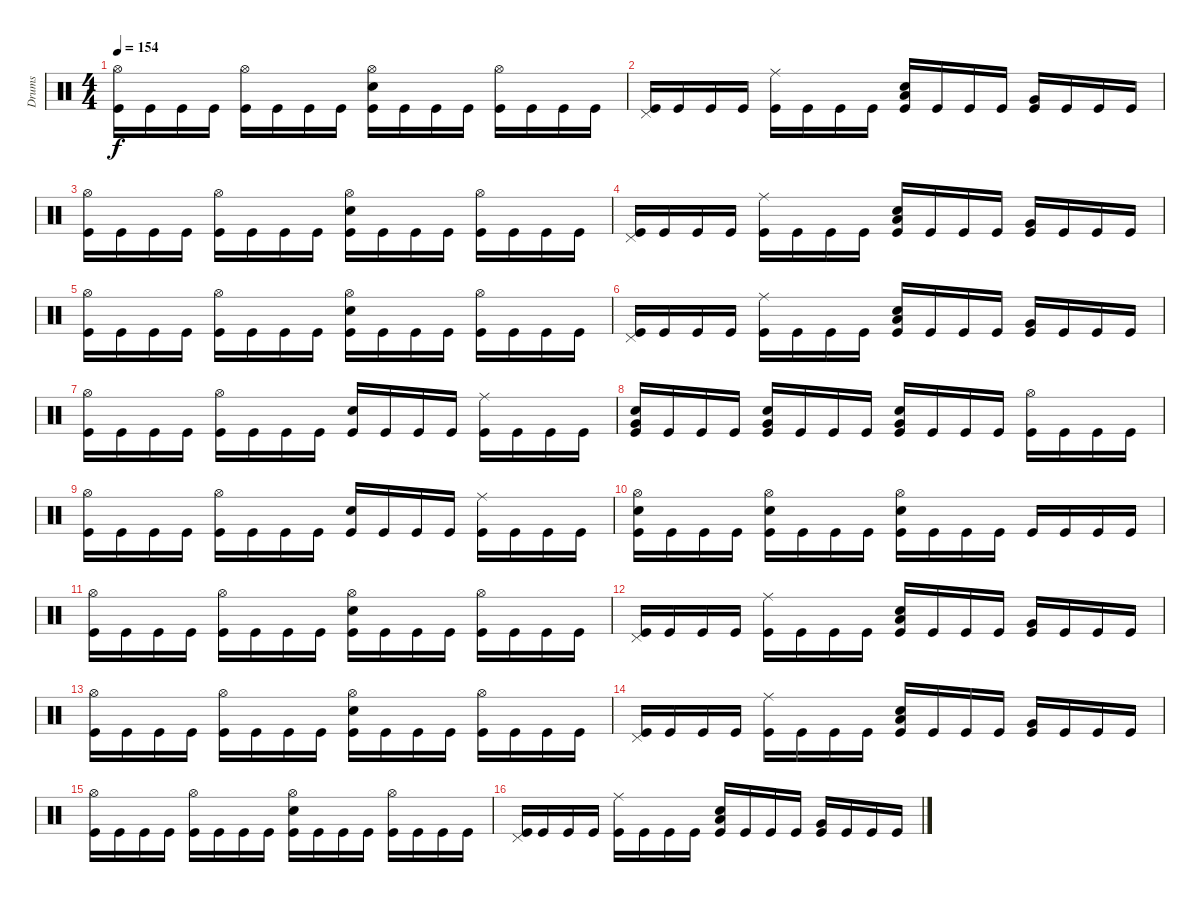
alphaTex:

\track ("Drums" "Drums") {instrument percussion}
\staff {score}
\articulation defaults
\ts (4 4)
\tempo 154
\clef neutral
\ks c
("Hi-Hat (open)" "Kick (hit)").16{dy f} "Kick (hit)".16 "Kick (hit)".16 "Kick (hit)".16 ("Hi-Hat (open)" "Kick (hit)").16 "Kick (hit)".16 "Kick (hit)".16 "Kick (hit)".16 ("Hi-Hat (open)" "Electric Snare (hit)" "Kick (hit)").16 "Kick (hit)".16 "Kick (hit)".16 "Kick (hit)".16 ("Hi-Hat (open)" "Kick (hit)").16 "Kick (hit)".16 "Kick (hit)".16 "Kick (hit)".16 |
("Pedal Hi-Hat (hit)" "Kick (hit)").16 "Kick (hit)".16 "Kick (hit)".16 "Kick (hit)".16 ("Ride (middle)" "Kick (hit)").16 "Kick (hit)".16 "Kick (hit)".16 "Kick (hit)".16 ("Electric Snare (hit)" "Low Floor Tom (hit)" "Kick (hit)").16 "Kick (hit)".16 "Kick (hit)".16 "Kick (hit)".16 ("Very Low Tom (hit)" "Kick (hit)").16 "Kick (hit)".16 "Kick (hit)".16 "Kick (hit)".16 |
("Hi-Hat (open)" "Kick (hit)").16 "Kick (hit)".16 "Kick (hit)".16 "Kick (hit)".16 ("Hi-Hat (open)" "Kick (hit)").16 "Kick (hit)".16 "Kick (hit)".16 "Kick (hit)".16 ("Hi-Hat (open)" "Electric Snare (hit)" "Kick (hit)").16 "Kick (hit)".16 "Kick (hit)".16 "Kick (hit)".16 ("Hi-Hat (open)" "Kick (hit)").16 "Kick (hit)".16 "Kick (hit)".16 "Kick (hit)".16 |
("Pedal Hi-Hat (hit)" "Kick (hit)").16 "Kick (hit)".16 "Kick (hit)".16 "Kick (hit)".16 ("Ride (middle)" "Kick (hit)").16 "Kick (hit)".16 "Kick (hit)".16 "Kick (hit)".16 ("Electric Snare (hit)" "Low Floor Tom (hit)" "Kick (hit)").16 "Kick (hit)".16 "Kick (hit)".16 "Kick (hit)".16 ("Very Low Tom (hit)" "Kick (hit)").16 "Kick (hit)".16 "Kick (hit)".16 "Kick (hit)".16 |
("Hi-Hat (open)" "Kick (hit)").16 "Kick (hit)".16 "Kick (hit)".16 "Kick (hit)".16 ("Hi-Hat (open)" "Kick (hit)").16 "Kick (hit)".16 "Kick (hit)".16 "Kick (hit)".16 ("Hi-Hat (open)" "Electric Snare (hit)" "Kick (hit)").16 "Kick (hit)".16 "Kick (hit)".16 "Kick (hit)".16 ("Hi-Hat (open)" "Kick (hit)").16 "Kick (hit)".16 "Kick (hit)".16 "Kick (hit)".16 |
("Pedal Hi-Hat (hit)" "Kick (hit)").16 "Kick (hit)".16 "Kick (hit)".16 "Kick (hit)".16 ("Ride (middle)" "Kick (hit)").16 "Kick (hit)".16 "Kick (hit)".16 "Kick (hit)".16 ("Electric Snare (hit)" "Low Floor Tom (hit)" "Kick (hit)").16 "Kick (hit)".16 "Kick (hit)".16 "Kick (hit)".16 ("Very Low Tom (hit)" "Kick (hit)").16 "Kick (hit)".16 "Kick (hit)".16 "Kick (hit)".16 |
("Hi-Hat (open)" "Kick (hit)").16 "Kick (hit)".16 "Kick (hit)".16 "Kick (hit)".16 ("Hi-Hat (open)" "Kick (hit)").16 "Kick (hit)".16 "Kick (hit)".16 "Kick (hit)".16 ("Electric Snare (hit)" "Kick (hit)").16 "Kick (hit)".16 "Kick (hit)".16 "Kick (hit)".16 ("Ride (middle)" "Kick (hit)").16 "Kick (hit)".16 "Kick (hit)".16 "Kick (hit)".16 |
("Electric Snare (hit)" "Very Low Tom (hit)" "Kick (hit)").16 "Kick (hit)".16 "Kick (hit)".16 "Kick (hit)".16 ("Electric Snare (hit)" "Very Low Tom (hit)" "Kick (hit)").16 "Kick (hit)".16 "Kick (hit)".16 "Kick (hit)".16 ("Electric Snare (hit)" "Very Low Tom (hit)" "Kick (hit)").16 "Kick (hit)".16 "Kick (hit)".16 "Kick (hit)".16 ("Hi-Hat (open)" "Kick (hit)").16 "Kick (hit)".16 "Kick (hit)".16 "Kick (hit)".16 |
("Hi-Hat (open)" "Kick (hit)").16 "Kick (hit)".16 "Kick (hit)".16 "Kick (hit)".16 ("Hi-Hat (open)" "Kick (hit)").16 "Kick (hit)".16 "Kick (hit)".16 "Kick (hit)".16 ("Electric Snare (hit)" "Kick (hit)").16 "Kick (hit)".16 "Kick (hit)".16 "Kick (hit)".16 ("Ride (middle)" "Kick (hit)").16 "Kick (hit)".16 "Kick (hit)".16 "Kick (hit)".16 |
("Hi-Hat (open)" "Electric Snare (hit)" "Kick (hit)").16 "Kick (hit)".16 "Kick (hit)".16 "Kick (hit)".16 ("Hi-Hat (open)" "Electric Snare (hit)" "Kick (hit)").16 "Kick (hit)".16 "Kick (hit)".16 "Kick (hit)".16 ("Hi-Hat (open)" "Electric Snare (hit)" "Kick (hit)").16 "Kick (hit)".16 "Kick (hit)".16 "Kick (hit)".16 "Kick (hit)".16 "Kick (hit)".16 "Kick (hit)".16 "Kick (hit)".16 |
("Hi-Hat (open)" "Kick (hit)").16 "Kick (hit)".16 "Kick (hit)".16 "Kick (hit)".16 ("Hi-Hat (open)" "Kick (hit)").16 "Kick (hit)".16 "Kick (hit)".16 "Kick (hit)".16 ("Hi-Hat (open)" "Electric Snare (hit)" "Kick (hit)").16 "Kick (hit)".16 "Kick (hit)".16 "Kick (hit)".16 ("Hi-Hat (open)" "Kick (hit)").16 "Kick (hit)".16 "Kick (hit)".16 "Kick (hit)".16 |
("Pedal Hi-Hat (hit)" "Kick (hit)").16 "Kick (hit)".16 "Kick (hit)".16 "Kick (hit)".16 ("Ride (middle)" "Kick (hit)").16 "Kick (hit)".16 "Kick (hit)".16 "Kick (hit)".16 ("Electric Snare (hit)" "Low Floor Tom (hit)" "Kick (hit)").16 "Kick (hit)".16 "Kick (hit)".16 "Kick (hit)".16 ("Very Low Tom (hit)" "Kick (hit)").16 "Kick (hit)".16 "Kick (hit)".16 "Kick (hit)".16 |
("Hi-Hat (open)" "Kick (hit)").16 "Kick (hit)".16 "Kick (hit)".16 "Kick (hit)".16 ("Hi-Hat (open)" "Kick (hit)").16 "Kick (hit)".16 "Kick (hit)".16 "Kick (hit)".16 ("Hi-Hat (open)" "Electric Snare (hit)" "Kick (hit)").16 "Kick (hit)".16 "Kick (hit)".16 "Kick (hit)".16 ("Hi-Hat (open)" "Kick (hit)").16 "Kick (hit)".16 "Kick (hit)".16 "Kick (hit)".16 |
("Pedal Hi-Hat (hit)" "Kick (hit)").16 "Kick (hit)".16 "Kick (hit)".16 "Kick (hit)".16 ("Ride (middle)" "Kick (hit)").16 "Kick (hit)".16 "Kick (hit)".16 "Kick (hit)".16 ("Electric Snare (hit)" "Low Floor Tom (hit)" "Kick (hit)").16 "Kick (hit)".16 "Kick (hit)".16 "Kick (hit)".16 ("Very Low Tom (hit)" "Kick (hit)").16 "Kick (hit)".16 "Kick (hit)".16 "Kick (hit)".16 |
("Hi-Hat (open)" "Kick (hit)").16 "Kick (hit)".16 "Kick (hit)".16 "Kick (hit)".16 ("Hi-Hat (open)" "Kick (hit)").16 "Kick (hit)".16 "Kick (hit)".16 "Kick (hit)".16 ("Hi-Hat (open)" "Electric Snare (hit)" "Kick (hit)").16 "Kick (hit)".16 "Kick (hit)".16 "Kick (hit)".16 ("Hi-Hat (open)" "Kick (hit)").16 "Kick (hit)".16 "Kick (hit)".16 "Kick (hit)".16 |
("Pedal Hi-Hat (hit)" "Kick (hit)").16 "Kick (hit)".16 "Kick (hit)".16 "Kick (hit)".16 ("Ride (middle)" "Kick (hit)").16 "Kick (hit)".16 "Kick (hit)".16 "Kick (hit)".16 ("Electric Snare (hit)" "Low Floor Tom (hit)" "Kick (hit)").16 "Kick (hit)".16 "Kick (hit)".16 "Kick (hit)".16 ("Very Low Tom (hit)" "Kick (hit)").16 "Kick (hit)".16 "Kick (hit)".16 "Kick (hit)".16
